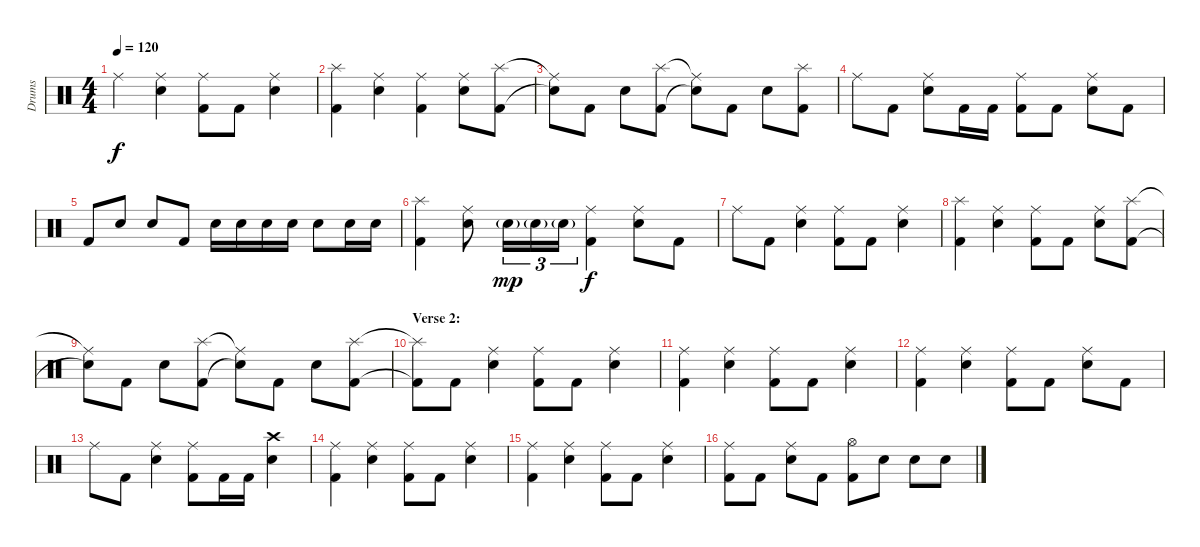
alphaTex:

\track ("Drums" "Drums") {instrument percussion}
\staff {score}
\articulation defaults
\ts (4 4)
\tempo 120
\clef neutral
\ks c "Ride (middle)".4{dy f}
("Ride (middle)" "Electric Snare (hit)").4 ("Ride (middle)" "Kick (hit) 2").8 "Kick (hit) 2".8 ("Ride (middle)" "Electric Snare (hit)").4 |
("Splash (hit)" "Kick (hit) 2").4 ("Ride (middle)" "Electric Snare (hit)").4 ("Ride (middle)" "Kick (hit) 2").4 ("Ride (middle)" "Electric Snare (hit)").8 ("Splash (hit)" "Kick (hit) 2").8 |
("Ride (middle)"{t} "Snare (hit)"{t}).8 "Kick (hit) 2".8 "Electric Snare (hit)".8 ("Splash (hit)" "Kick (hit) 2").8 ("Ride (middle)"{t} "Snare (hit)"{t}).8 "Kick (hit) 2".8 "Electric Snare (hit)".8 ("Splash (hit)" "Kick (hit) 2").8 |
"Ride (middle)".8 "Kick (hit) 2".8 ("Ride (middle)" "Electric Snare (hit)").8 "Kick (hit) 2".16 "Kick (hit) 2".16 ("Ride (middle)" "Kick (hit) 2").8 "Kick (hit) 2".8 ("Ride (middle)" "Electric Snare (hit)").8 "Kick (hit) 2".8 |
"Kick (hit) 2".8 "Electric Snare (hit)".8 "Electric Snare (hit)".8 "Kick (hit) 2".8 "Electric Snare (hit)".16 "Electric Snare (hit)".16 "Electric Snare (hit)".16 "Electric Snare (hit)".16 "Electric Snare (hit)".8 "Electric Snare (hit)".16 "Electric Snare (hit)".16 |
("Splash (hit)" "Kick (hit) 2").4 ("Ride (middle)" "Electric Snare (hit)").8 "Electric Snare (hit)"{g}.16{tu (3 2) dy mp} "Electric Snare (hit)"{g}.16{tu (3 2)} "Electric Snare (hit)"{g}.16{tu (3 2)} ("Ride (middle)" "Kick (hit) 2").4{dy f} ("Ride (middle)" "Electric Snare (hit)").8 "Kick (hit) 2".8 |
"Ride (middle)".8 "Kick (hit) 2".8 ("Ride (middle)" "Electric Snare (hit)").4 ("Ride (middle)" "Kick (hit) 2").8 "Kick (hit) 2".8 ("Ride (middle)" "Electric Snare (hit)").4 |
("Splash (hit)" "Kick (hit) 2").4 ("Ride (middle)" "Electric Snare (hit)").4 ("Ride (middle)" "Kick (hit) 2").8 "Kick (hit) 2".8 ("Ride (middle)" "Electric Snare (hit)").8 ("Splash (hit)" "Kick (hit) 2").8 |
("Ride (middle)"{t} "Snare (hit)"{t}).8 "Kick (hit) 2".8 "Electric Snare (hit)".8 ("Splash (hit)" "Kick (hit) 2").8 ("Ride (middle)"{t} "Snare (hit)"{t}).8 "Kick (hit) 2".8 "Electric Snare (hit)".8 ("Splash (hit)" "Kick (hit) 2").8 |
\section ("" "Verse 2:")
("Splash (hit)"{t} "Kick (hit) 2"{t}).8 "Kick (hit) 2".8 ("Ride (middle)" "Electric Snare (hit)").4 ("Ride (middle)" "Kick (hit) 2").8 "Kick (hit) 2".8 ("Ride (middle)" "Electric Snare (hit)").4 |
("Ride (middle)" "Kick (hit) 2").4 ("Ride (middle)" "Electric Snare (hit)").4 ("Ride (middle)" "Kick (hit) 2").8 "Kick (hit) 2".8 ("Ride (middle)" "Electric Snare (hit)").4 |
("Ride (middle)" "Kick (hit) 2").4 ("Ride (middle)" "Electric Snare (hit)").4 ("Ride (middle)" "Kick (hit) 2").8 "Kick (hit) 2".8 ("Ride (middle)" "Electric Snare (hit)").8 "Kick (hit) 2".8 |
"Ride (middle)".8 "Kick (hit) 2".8 ("Ride (middle)" "Electric Snare (hit)").4 ("Ride (middle)" "Kick (hit) 2").8 "Kick (hit) 2".16 "Kick (hit) 2".16 ("Crash high (hit)" "Electric Snare (hit)").4 |
("Ride (middle)" "Kick (hit) 2").4 ("Ride (middle)" "Electric Snare (hit)").4 ("Ride (middle)" "Kick (hit) 2").8 "Kick (hit) 2".8 ("Ride (middle)" "Electric Snare (hit)").4 |
("Ride (middle)" "Kick (hit) 2").4 ("Ride (middle)" "Electric Snare (hit)").4 ("Ride (middle)" "Kick (hit) 2").8 "Kick (hit) 2".8 ("Ride (middle)" "Electric Snare (hit)").4 |
("Ride (middle)" "Kick (hit) 2").8 "Kick (hit) 2".8 ("Ride (middle)" "Electric Snare (hit)").8 "Kick (hit) 2".8 ("Hi-Hat (open)" "Kick (hit) 2").8 "Electric Snare (hit)".8 "Electric Snare (hit)".8 "Electric Snare (hit)".8
